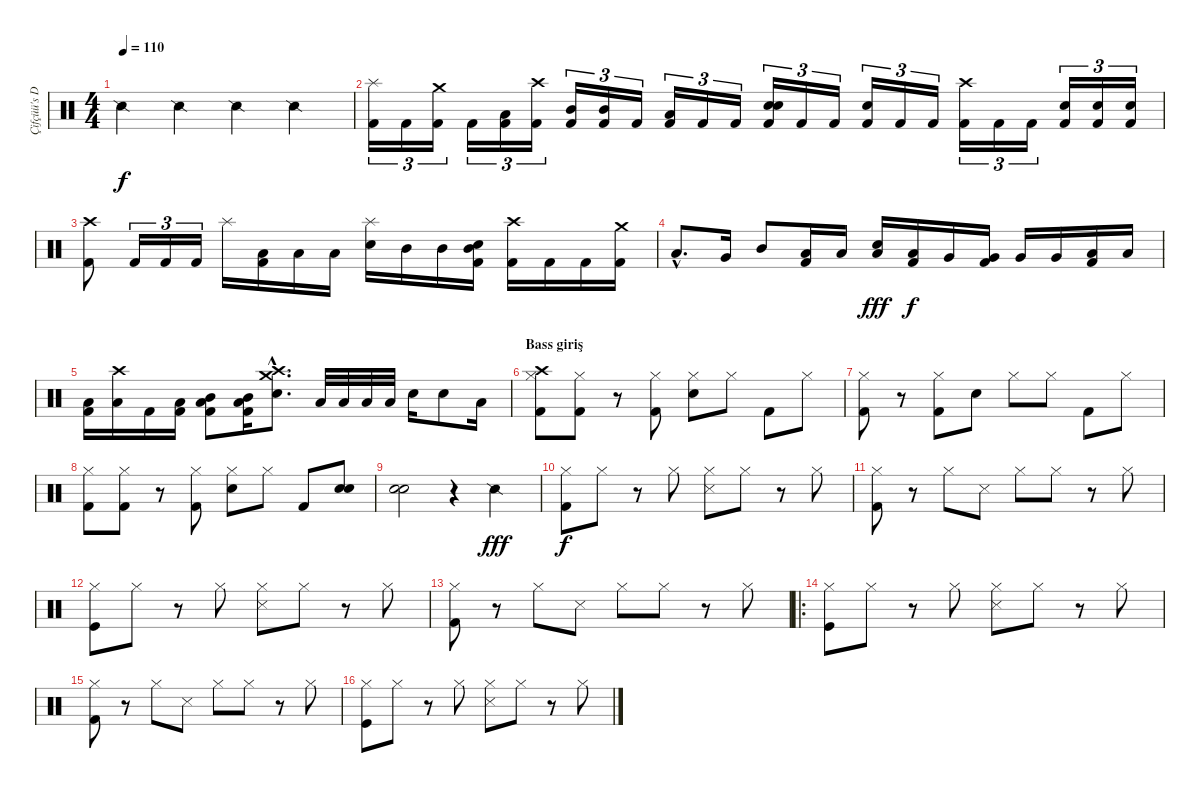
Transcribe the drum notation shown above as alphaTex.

\track ("Çifçüü's Drums" "Çifçüü's D") {instrument percussion}
\staff {score}
\articulation defaults
\ts (4 4)
\tempo 110
\clef neutral
\ks c "Snare (side stick) 2".4{dy f} "Snare (side stick) 2".4 "Snare (side stick) 2".4 "Snare (side stick) 2".4
|
("Splash (hit)" "Kick (hit) 2").16{tu (3 2)} "Kick (hit) 2".16{tu (3 2)} ("Crash medium (hit)" "Kick (hit) 2").16{tu (3 2)} "Kick (hit) 2".16{tu (3 2)} ("Low Tom (hit)" "Kick (hit) 2").16{tu (3 2)} ("Crash high (hit)" "Kick (hit) 2").16{tu (3 2)} ("Mid Tom (hit)" "Kick (hit) 2").16{tu (3 2)} ("Mid Tom (hit)" "Kick (hit) 2").16{tu (3 2)} "Kick (hit) 2".16{tu (3 2)} ("Low Tom (hit)" "Kick (hit) 2").16{tu (3 2)} "Kick (hit) 2".16{tu (3 2)} "Kick (hit) 2".16{tu (3 2)} ("Electric Snare (hit)" "Snare (hit) 2" "Kick (hit) 2").16{tu (3 2)} "Kick (hit) 2".16{tu (3 2)} "Kick (hit) 2".16{tu (3 2)} ("Electric Snare (hit)" "Kick (hit) 2").16{tu (3 2)} "Kick (hit) 2".16{tu (3 2)} "Kick (hit) 2".16{tu (3 2)} ("Crash high (hit)" "Kick (hit) 2").16{tu (3 2)} "Kick (hit) 2".16{tu (3 2)} "Kick (hit) 2".16{tu (3 2)} ("Electric Snare (hit)" "Kick (hit) 2").16{tu (3 2)} ("Electric Snare (hit)" "Kick (hit) 2").16{tu (3 2)} ("Electric Snare (hit)" "Kick (hit) 2").16{tu (3 2)} |
("Crash high (hit)" "Kick (hit) 2").8 "Kick (hit) 2".16{tu (3 2)} "Kick (hit) 2".16{tu (3 2)} "Kick (hit) 2".16{tu (3 2)} "Splash (hit)".16 ("Kick (hit) 2" "Low Tom (hit)").16 "Low Tom (hit)".16 "Low Tom (hit)".16 ("Splash (hit)" "Electric Snare (hit)").16 "Mid Tom (hit)".16 "Mid Tom (hit)".16 ("Kick (hit) 2" "Mid Tom (hit)" "Snare (hit) 2").16 ("Crash high (hit)" "Kick (hit) 2").16 "Kick (hit) 2".16 "Kick (hit) 2".16 ("Crash medium (hit)" "Kick (hit) 2").16 |
"Low Tom (hit)"{hac}.8{d} "Very Low Tom (hit)".16 "Mid Tom (hit)".8 ("Low Tom (hit)" "Kick (hit) 2").16 "Low Tom (hit)".16 ("Low Tom (hit)" "Electric Snare (hit)").16{dy fff} ("Low Tom (hit)" "Kick (hit) 2").16{dy f} "Very Low Tom (hit)".16 ("Very Low Tom (hit)" "Kick (hit) 2").16 "Very Low Tom (hit)".16 "Very Low Tom (hit)".16 ("Low Floor Tom (hit)" "Kick (hit) 2").16 "Low Floor Tom (hit)".16 |
("Low Tom (hit)" "Kick (hit) 2").16 ("Crash high (hit)" "Low Tom (hit)").16 "Kick (hit) 2".16 ("Low Tom (hit)" "Kick (hit) 2").16 ("Mid Tom (hit)" "Kick (hit) 2" "Low Tom (hit)").8 ("Mid Tom (hit)" "Kick (hit) 2" "Low Tom (hit)").16 ("Crash medium (hit)"{hac} "Electric Snare (hit)"{hac} "Crash high (hit)"{hac}).8{d} "Low Tom (hit)".32 "Low Tom (hit)".32 "Low Tom (hit)".32 "Low Tom (hit)".32 "Electric Snare (hit)".16 "Electric Snare (hit)".8 "Low Tom (hit)".16 |
\section ("" "Bass giriş")
("Crash high (hit)" "Hi-Hat (closed)" "Kick (hit) 2").8 ("Hi-Hat (closed)" "Kick (hit) 2").8 r.8 ("Hi-Hat (closed)" "Kick (hit) 2").8 ("Hi-Hat (closed)" "Electric Snare (hit)").8 "Hi-Hat (closed)".8 "Kick (hit) 2".8 "Hi-Hat (closed)".8 |
("Hi-Hat (closed)" "Kick (hit) 2").8 r.8 ("Hi-Hat (closed)" "Kick (hit) 2").8 "Electric Snare (hit)".8 "Hi-Hat (closed)".8 "Hi-Hat (closed)".8 "Kick (hit) 2".8 "Hi-Hat (closed)".8 |
("Hi-Hat (closed)" "Kick (hit) 2").8 ("Hi-Hat (closed)" "Kick (hit) 2").8 r.8 ("Hi-Hat (closed)" "Kick (hit) 2").8 ("Hi-Hat (closed)" "Electric Snare (hit)").8 "Hi-Hat (closed)".8 "Kick (hit) 2".8 ("Electric Snare (hit)" "Electric Snare (hit)").8 |
("Electric Snare (hit)" "Electric Snare (hit)").2 r.4 "Snare (side stick) 2".4{dy fff} |
("Hi-Hat (closed)" "Kick (hit) 2").8{dy f} "Hi-Hat (closed)".8 r.8 "Hi-Hat (closed)".8 ("Hi-Hat (closed)" "Snare (side stick) 3").8 "Hi-Hat (closed)".8 r.8 "Hi-Hat (closed)".8 |
("Hi-Hat (closed)" "Kick (hit) 2").8 r.8 "Hi-Hat (closed)".8 "Snare (side stick) 3".8 "Hi-Hat (closed)".8 "Hi-Hat (closed)".8 r.8 "Hi-Hat (closed)".8 |
("Hi-Hat (closed)" "Kick (hit)").8 "Hi-Hat (closed)".8 r.8 "Hi-Hat (closed)".8 ("Hi-Hat (closed)" "Snare (side stick) 3").8 "Hi-Hat (closed)".8 r.8 "Hi-Hat (closed)".8 |
("Hi-Hat (closed)" "Kick (hit) 2").8 r.8 "Hi-Hat (closed)".8 "Snare (side stick) 3".8 "Hi-Hat (closed)".8 "Hi-Hat (closed)".8 r.8 "Hi-Hat (closed)".8 |
\ro
("Hi-Hat (closed)" "Kick (hit)").8 "Hi-Hat (closed)".8 r.8 "Hi-Hat (closed)".8 ("Hi-Hat (closed)" "Snare (side stick) 3").8 "Hi-Hat (closed)".8 r.8 "Hi-Hat (closed)".8 |
("Hi-Hat (closed)" "Kick (hit) 2").8 r.8 "Hi-Hat (closed)".8 "Snare (side stick) 3".8 "Hi-Hat (closed)".8 "Hi-Hat (closed)".8 r.8 "Hi-Hat (closed)".8 |
("Hi-Hat (closed)" "Kick (hit)").8 "Hi-Hat (closed)".8 r.8 "Hi-Hat (closed)".8 ("Hi-Hat (closed)" "Snare (side stick) 3").8 "Hi-Hat (closed)".8 r.8 "Hi-Hat (closed)".8
